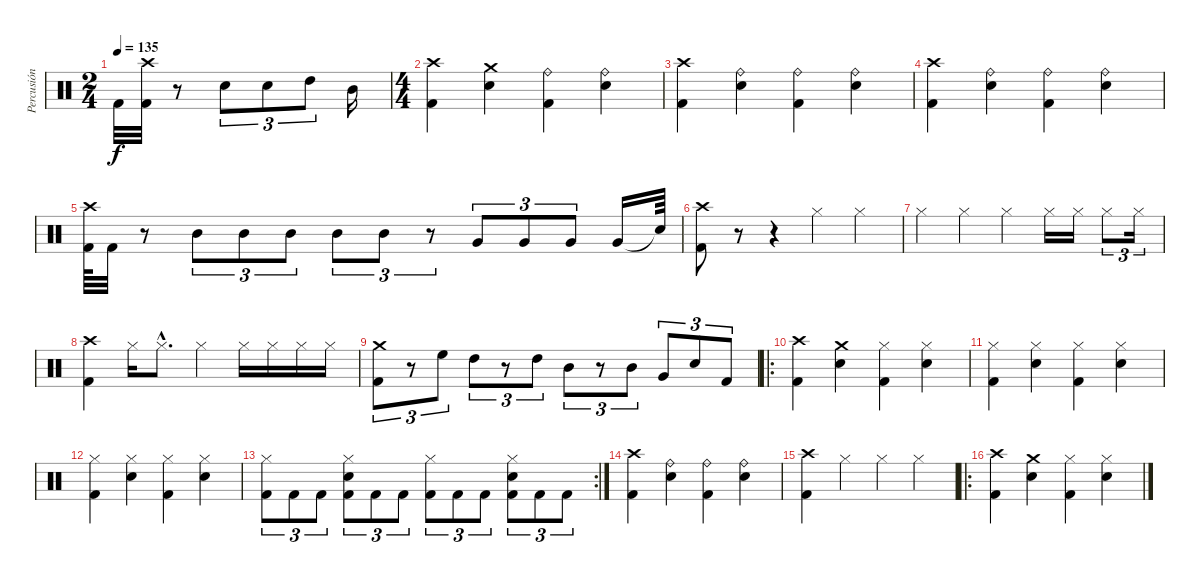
\track ("Percusión" "Percusión") {instrument percussion}
\staff {score}
\articulation defaults
\ts (2 4)
\tempo 135
\clef neutral
\ks c "Kick (hit) 2".32{dy f}
("Crash high (hit)" "Kick (hit) 2").32 r.8 "Snare (hit) 2".8{tu (3 2)} "Snare (hit) 2".8{tu (3 2)} "High Tom (hit)".8{tu (3 2)} "Mid Tom (hit)".16 |
\ts (4 4)
("Crash high (hit)" "Kick (hit) 2").4 ("Crash medium (hit)" "Snare (hit) 2").4 ("Ride (bell)" "Kick (hit) 2").4 ("Ride (bell)" "Snare (hit) 2").4 |
("Crash high (hit)" "Kick (hit) 2").4 ("Ride (bell)" "Snare (hit) 2").4 ("Ride (bell)" "Kick (hit) 2").4 ("Ride (bell)" "Snare (hit) 2").4 |
("Crash high (hit)" "Kick (hit) 2").4 ("Ride (bell)" "Snare (hit) 2").4 ("Ride (bell)" "Kick (hit) 2").4 ("Ride (bell)" "Snare (hit) 2").4 |
("Crash high (hit)" "Kick (hit) 2").64 "Kick (hit) 2".32 r.8 "Mid Tom (hit)".8{tu (3 2)} "Mid Tom (hit)".8{tu (3 2)} "Mid Tom (hit)".8{tu (3 2)} "Mid Tom (hit)".8{tu (3 2)} "Mid Tom (hit)".8{tu (3 2)} r.8{tu (3 2)} "Very Low Tom (hit)".8{tu (3 2)} "Very Low Tom (hit)".8{tu (3 2)} "Very Low Tom (hit)".8{tu (3 2)} "Very Low Tom (hit)".16 "Snare (hit)"{t}.64 |
("Crash high (hit)" "Kick (hit) 2").8 r.8 r.4 "Hi-Hat (closed)".4 "Hi-Hat (closed)".4 |
"Hi-Hat (closed)".4 "Hi-Hat (closed)".4 "Hi-Hat (closed)".4 "Hi-Hat (closed)".16 "Hi-Hat (closed)".16 "Hi-Hat (closed)".8{tu (3 2)} "Hi-Hat (closed)".16{tu (3 2)} |
("Crash high (hit)" "Kick (hit) 2").4 "Hi-Hat (closed)".16 "Hi-Hat (closed)"{hac}.8{d} "Hi-Hat (closed)".4 "Hi-Hat (closed)".16 "Hi-Hat (closed)".16 "Hi-Hat (closed)".16 "Hi-Hat (closed)".16 |
("Crash medium (hit)" "Kick (hit) 2").8{tu (3 2)} r.8{tu (3 2)} "High Floor Tom (hit)".8{tu (3 2)} "High Tom (hit)".8{tu (3 2)} r.8{tu (3 2)} "High Tom (hit)".8{tu (3 2)} "Mid Tom (hit)".8{tu (3 2)} r.8{tu (3 2)} "Mid Tom (hit)".8{tu (3 2)} "Very Low Tom (hit)".8{tu (3 2)} "Snare (hit) 2".8{tu (3 2)} "Kick (hit) 2".8{tu (3 2)} |
\ro
("Crash high (hit)" "Kick (hit) 2").4 ("Crash medium (hit)" "Snare (hit) 2").4 ("Hi-Hat (closed)" "Kick (hit) 2").4 ("Hi-Hat (closed)" "Snare (hit) 2").4 |
("Hi-Hat (closed)" "Kick (hit) 2").4 ("Hi-Hat (closed)" "Snare (hit) 2").4 ("Hi-Hat (closed)" "Kick (hit) 2").4 ("Hi-Hat (closed)" "Snare (hit) 2").4 |
("Hi-Hat (closed)" "Kick (hit) 2").4 ("Hi-Hat (closed)" "Snare (hit) 2").4 ("Hi-Hat (closed)" "Kick (hit) 2").4 ("Hi-Hat (closed)" "Snare (hit) 2").4 |
\rc 2
("Hi-Hat (closed)" "Kick (hit) 2").8{tu (3 2)} "Kick (hit) 2".8{tu (3 2)} "Kick (hit) 2".8{tu (3 2)} ("Hi-Hat (closed)" "Snare (hit) 2" "Kick (hit) 2").8{tu (3 2)} "Kick (hit) 2".8{tu (3 2)} "Kick (hit) 2".8{tu (3 2)} ("Hi-Hat (closed)" "Kick (hit) 2").8{tu (3 2)} "Kick (hit) 2".8{tu (3 2)} "Kick (hit) 2".8{tu (3 2)} ("Hi-Hat (closed)" "Snare (hit) 2" "Kick (hit) 2").8{tu (3 2)} "Kick (hit) 2".8{tu (3 2)} "Kick (hit) 2".8{tu (3 2)} |
("Crash high (hit)" "Kick (hit) 2").4 ("Ride (bell)" "Snare (hit) 2").4 ("Ride (bell)" "Kick (hit) 2").4 ("Ride (bell)" "Snare (hit) 2").4 |
("Crash high (hit)" "Kick (hit) 2").4 "Hi-Hat (closed)".4 "Hi-Hat (closed)".4 "Hi-Hat (closed)".4 |
\ro
("Crash high (hit)" "Kick (hit) 2").4 ("Crash medium (hit)" "Snare (hit) 2").4 ("Hi-Hat (closed)" "Kick (hit) 2").4 ("Hi-Hat (closed)" "Snare (hit) 2").4
